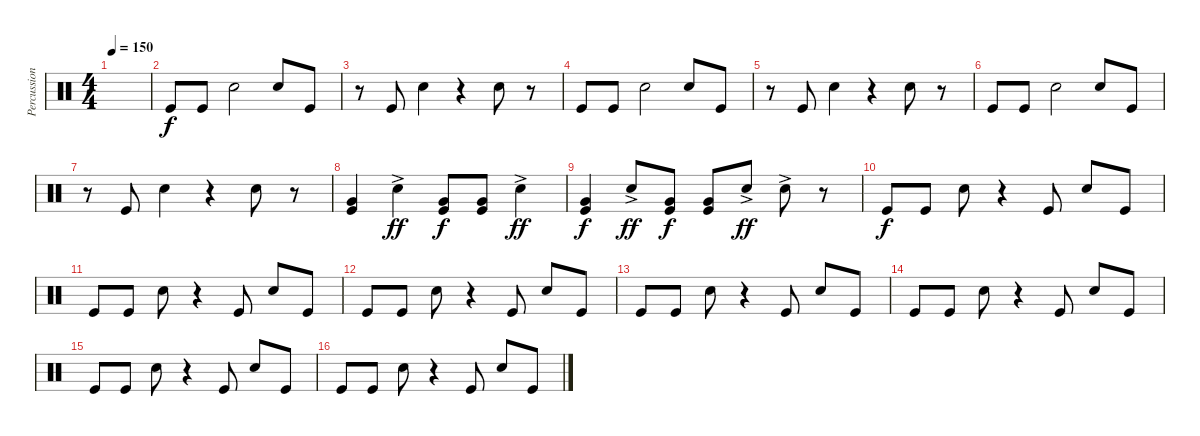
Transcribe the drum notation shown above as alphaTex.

\track ("Percussion" "Percussion") {instrument percussion}
\staff {score}
\articulation defaults
\ts (4 4)
\tempo 150
\clef neutral
\ks c
|
"Kick (hit)".8 "Kick (hit)".8 "Snare (hit) 2".2 "Snare (hit) 2".8 "Kick (hit)".8 |
r.8 "Kick (hit)".8 "Snare (hit) 2".4 r.4 "Snare (hit) 2".8 r.8 |
"Kick (hit)".8 "Kick (hit)".8 "Snare (hit) 2".2 "Snare (hit) 2".8 "Kick (hit)".8 |
r.8 "Kick (hit)".8 "Snare (hit) 2".4 r.4 "Snare (hit) 2".8 r.8 |
"Kick (hit)".8 "Kick (hit)".8 "Snare (hit) 2".2 "Snare (hit) 2".8 "Kick (hit)".8 |
r.8 "Kick (hit)".8 "Snare (hit) 2".4 r.4 "Snare (hit) 2".8 r.8 |
("Kick (hit)" "Very Low Tom (hit)").4 "Snare (hit) 2"{ac}.4{dy ff} ("Kick (hit)" "Very Low Tom (hit)").8{dy f} ("Kick (hit)" "Very Low Tom (hit)").8 "Snare (hit) 2"{ac}.4{dy ff} |
("Kick (hit)" "Very Low Tom (hit)").4{dy f} "Snare (hit) 2"{ac}.8{dy ff} ("Kick (hit)" "Very Low Tom (hit)").8{dy f} ("Kick (hit)" "Very Low Tom (hit)").8 "Snare (hit) 2"{ac}.8{dy ff} "Snare (hit) 2"{ac}.8 r.8 |
"Kick (hit)".8{dy f} "Kick (hit)".8 "Snare (hit) 2".8 r.4 "Kick (hit)".8 "Snare (hit) 2".8 "Kick (hit)".8 |
"Kick (hit)".8 "Kick (hit)".8 "Snare (hit) 2".8 r.4 "Kick (hit)".8 "Snare (hit) 2".8 "Kick (hit)".8 |
"Kick (hit)".8 "Kick (hit)".8 "Snare (hit) 2".8 r.4 "Kick (hit)".8 "Snare (hit) 2".8 "Kick (hit)".8 |
"Kick (hit)".8 "Kick (hit)".8 "Snare (hit) 2".8 r.4 "Kick (hit)".8 "Snare (hit) 2".8 "Kick (hit)".8 |
"Kick (hit)".8 "Kick (hit)".8 "Snare (hit) 2".8 r.4 "Kick (hit)".8 "Snare (hit) 2".8 "Kick (hit)".8 |
"Kick (hit)".8 "Kick (hit)".8 "Snare (hit) 2".8 r.4 "Kick (hit)".8 "Snare (hit) 2".8 "Kick (hit)".8 |
"Kick (hit)".8 "Kick (hit)".8 "Snare (hit) 2".8 r.4 "Kick (hit)".8 "Snare (hit) 2".8 "Kick (hit)".8
